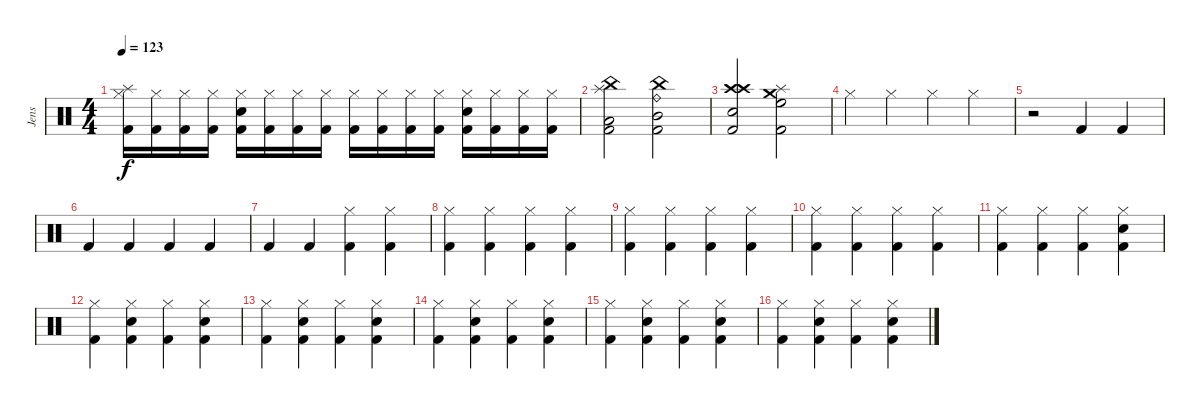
\track ("Jens" "Jens") {instrument percussion}
\staff {score}
\articulation defaults
\ts (4 4)
\tempo 123
\clef neutral
\ks c
("Splash (hit)" "Hi-Hat (closed)" "Kick (hit) 2").16{dy f} ("Hi-Hat (closed)" "Kick (hit) 2").16 ("Hi-Hat (closed)" "Kick (hit) 2").16 ("Hi-Hat (closed)" "Kick (hit) 2").16 ("Hi-Hat (closed)" "Snare (hit) 2" "Kick (hit) 2").16 ("Hi-Hat (closed)" "Kick (hit) 2").16 ("Hi-Hat (closed)" "Kick (hit) 2").16 ("Hi-Hat (closed)" "Kick (hit) 2").16 ("Hi-Hat (closed)" "Kick (hit) 2").16 ("Hi-Hat (closed)" "Kick (hit) 2").16 ("Hi-Hat (closed)" "Kick (hit) 2").16 ("Hi-Hat (closed)" "Kick (hit) 2").16 ("Hi-Hat (closed)" "Snare (hit) 2" "Kick (hit) 2").16 ("Hi-Hat (closed)" "Kick (hit) 2").16 ("Hi-Hat (closed)" "Kick (hit) 2").16 ("Hi-Hat (closed)" "Kick (hit) 2").16 |
("Splash (hit)" "China (hit)" "Low Tom (hit)" "Kick (hit) 2").2 ("China (hit)" "Mid Tom (hit)" "Ride (bell)" "Kick (hit) 2").2 |
("Crash high (hit)" "Crash high (hit)" "Electric Snare (hit)" "Kick (hit) 2").2 ("Crash medium (hit)" "Splash (hit)" "High Floor Tom (hit)" "Kick (hit) 2").2 |
"Hi-Hat (closed)".4 "Hi-Hat (closed)".4 "Hi-Hat (closed)".4 "Hi-Hat (closed)".4 |
r.2 "Kick (hit) 2".4 "Kick (hit) 2".4 |
"Kick (hit) 2".4 "Kick (hit) 2".4 "Kick (hit) 2".4 "Kick (hit) 2".4 |
"Kick (hit) 2".4 "Kick (hit) 2".4 ("Hi-Hat (closed)" "Kick (hit) 2").4 ("Hi-Hat (closed)" "Kick (hit) 2").4 |
("Hi-Hat (closed)" "Kick (hit) 2").4 ("Hi-Hat (closed)" "Kick (hit) 2").4 ("Hi-Hat (closed)" "Kick (hit) 2").4 ("Hi-Hat (closed)" "Kick (hit) 2").4 |
("Hi-Hat (closed)" "Kick (hit) 2").4 ("Hi-Hat (closed)" "Kick (hit) 2").4 ("Hi-Hat (closed)" "Kick (hit) 2").4 ("Hi-Hat (closed)" "Kick (hit) 2").4 |
("Hi-Hat (closed)" "Kick (hit) 2").4 ("Hi-Hat (closed)" "Kick (hit) 2").4 ("Hi-Hat (closed)" "Kick (hit) 2").4 ("Hi-Hat (closed)" "Kick (hit) 2").4 |
("Hi-Hat (closed)" "Kick (hit) 2").4 ("Hi-Hat (closed)" "Kick (hit) 2").4 ("Hi-Hat (closed)" "Kick (hit) 2").4 ("Hi-Hat (closed)" "Electric Snare (hit)" "Kick (hit) 2").4 |
("Hi-Hat (closed)" "Kick (hit) 2").4 ("Hi-Hat (closed)" "Electric Snare (hit)" "Kick (hit) 2").4 ("Hi-Hat (closed)" "Kick (hit) 2").4 ("Hi-Hat (closed)" "Electric Snare (hit)" "Kick (hit) 2").4 |
("Hi-Hat (closed)" "Kick (hit) 2").4 ("Hi-Hat (closed)" "Electric Snare (hit)" "Kick (hit) 2").4 ("Hi-Hat (closed)" "Kick (hit) 2").4 ("Hi-Hat (closed)" "Electric Snare (hit)" "Kick (hit) 2").4 |
("Hi-Hat (closed)" "Kick (hit) 2").4 ("Hi-Hat (closed)" "Electric Snare (hit)" "Kick (hit) 2").4 ("Hi-Hat (closed)" "Kick (hit) 2").4 ("Hi-Hat (closed)" "Electric Snare (hit)" "Kick (hit) 2").4 |
("Hi-Hat (closed)" "Kick (hit) 2").4 ("Hi-Hat (closed)" "Electric Snare (hit)" "Kick (hit) 2").4 ("Hi-Hat (closed)" "Kick (hit) 2").4 ("Hi-Hat (closed)" "Electric Snare (hit)" "Kick (hit) 2").4 |
("Hi-Hat (closed)" "Kick (hit) 2").4 ("Hi-Hat (closed)" "Electric Snare (hit)" "Kick (hit) 2").4 ("Hi-Hat (closed)" "Kick (hit) 2").4 ("Hi-Hat (closed)" "Electric Snare (hit)" "Kick (hit) 2").4
